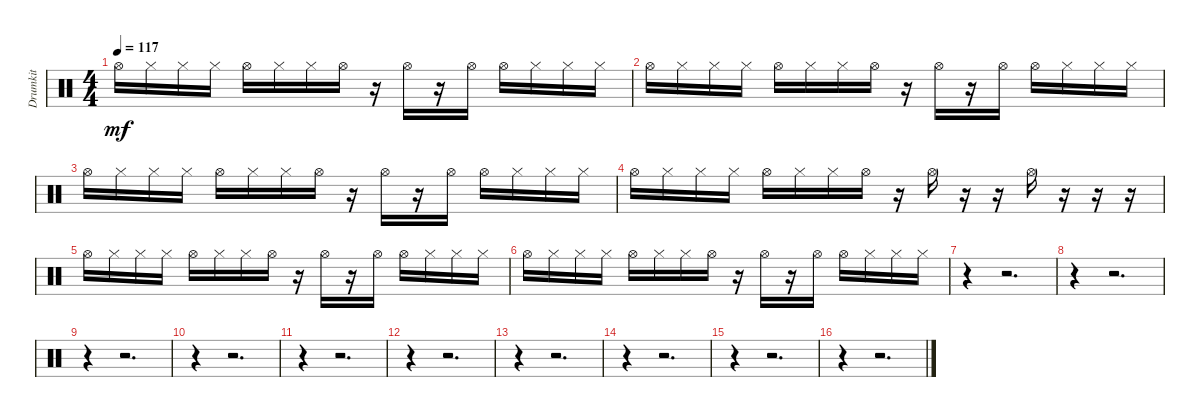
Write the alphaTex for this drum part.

\track ("Drumkit" "Drumkit") {instrument percussion}
\staff {score}
\articulation defaults
\ts (4 4)
\tempo 117
\clef neutral
\ks c "Hi-Hat (open)".16{dy mf} "Hi-Hat (closed)".16 "Hi-Hat (closed)".16 "Hi-Hat (closed)".16 "Hi-Hat (open)".16 "Hi-Hat (closed)".16 "Hi-Hat (closed)".16 "Hi-Hat (open)".16
r.16 "Hi-Hat (open)".16 r.16 "Hi-Hat (open)".16 "Hi-Hat (open)".16 "Hi-Hat (closed)".16 "Hi-Hat (closed)".16 "Hi-Hat (closed)".16 |
"Hi-Hat (open)".16 "Hi-Hat (closed)".16 "Hi-Hat (closed)".16 "Hi-Hat (closed)".16 "Hi-Hat (open)".16 "Hi-Hat (closed)".16 "Hi-Hat (closed)".16 "Hi-Hat (open)".16 r.16 "Hi-Hat (open)".16 r.16 "Hi-Hat (open)".16 "Hi-Hat (open)".16 "Hi-Hat (closed)".16 "Hi-Hat (closed)".16 "Hi-Hat (closed)".16 |
"Hi-Hat (open)".16 "Hi-Hat (closed)".16 "Hi-Hat (closed)".16 "Hi-Hat (closed)".16 "Hi-Hat (open)".16 "Hi-Hat (closed)".16 "Hi-Hat (closed)".16 "Hi-Hat (open)".16 r.16 "Hi-Hat (open)".16 r.16 "Hi-Hat (open)".16 "Hi-Hat (open)".16 "Hi-Hat (closed)".16 "Hi-Hat (closed)".16 "Hi-Hat (closed)".16 |
"Hi-Hat (open)".16 "Hi-Hat (closed)".16 "Hi-Hat (closed)".16 "Hi-Hat (closed)".16 "Hi-Hat (open)".16 "Hi-Hat (closed)".16 "Hi-Hat (closed)".16 "Hi-Hat (open)".16 r.16 "Hi-Hat (open)".16 r.16 r.16 "Hi-Hat (open)".16 r.16 r.16 r.16 |
"Hi-Hat (open)".16 "Hi-Hat (closed)".16 "Hi-Hat (closed)".16 "Hi-Hat (closed)".16 "Hi-Hat (open)".16 "Hi-Hat (closed)".16 "Hi-Hat (closed)".16 "Hi-Hat (open)".16 r.16 "Hi-Hat (open)".16 r.16 "Hi-Hat (open)".16 "Hi-Hat (open)".16 "Hi-Hat (closed)".16 "Hi-Hat (closed)".16 "Hi-Hat (closed)".16 |
"Hi-Hat (open)".16 "Hi-Hat (closed)".16 "Hi-Hat (closed)".16 "Hi-Hat (closed)".16 "Hi-Hat (open)".16 "Hi-Hat (closed)".16 "Hi-Hat (closed)".16 "Hi-Hat (open)".16 r.16 "Hi-Hat (open)".16 r.16 "Hi-Hat (open)".16 "Hi-Hat (open)".16 "Hi-Hat (closed)".16 "Hi-Hat (closed)".16 "Hi-Hat (closed)".16 |
r.4 r.2{d} |
r.4 r.2{d} |
r.4 r.2{d} |
r.4 r.2{d} |
r.4 r.2{d} |
r.4 r.2{d} |
r.4 r.2{d} |
r.4 r.2{d} |
r.4 r.2{d} |
r.4 r.2{d}
